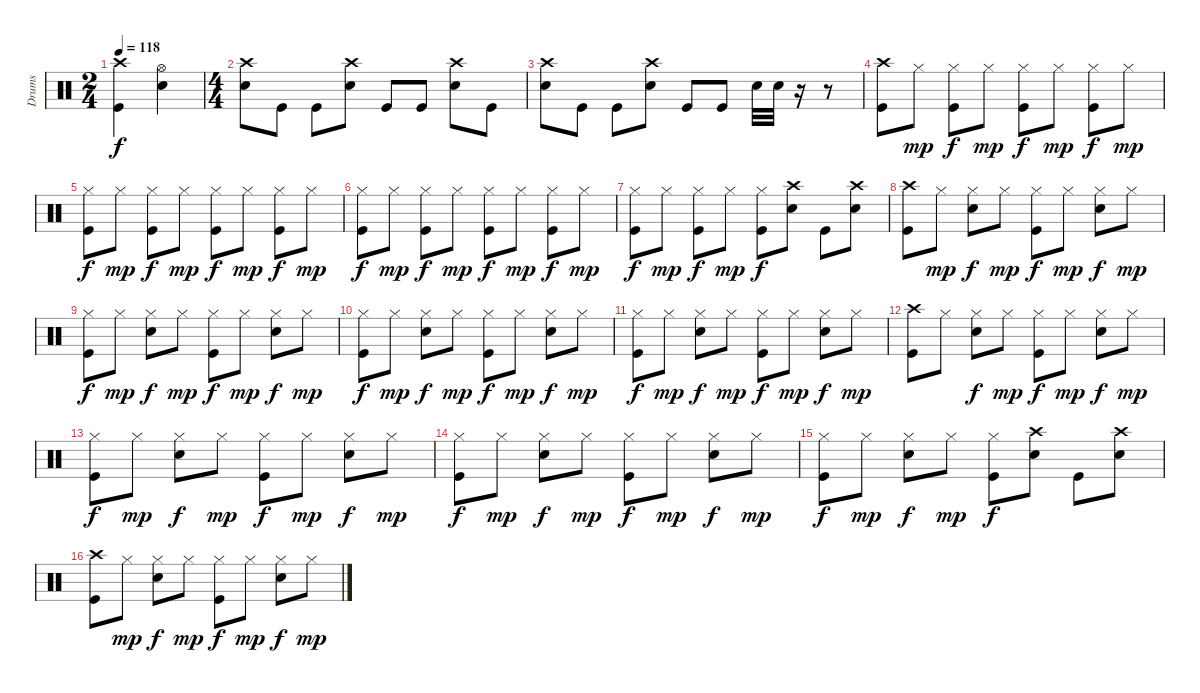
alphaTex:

\track ("Drums" "Drums") {instrument percussion}
\staff {score}
\articulation defaults
\ts (2 4)
\tempo 118
\clef neutral
\ks c
("Crash high (hit)" "Kick (hit)").4{dy f} ("Hi-Hat (open)" "Snare (hit) 2").4 |
\ts (4 4)
("Crash high (hit)" "Snare (hit) 2").8 "Kick (hit)".8 "Kick (hit)".8 ("Crash high (hit)" "Snare (hit) 2").8 "Kick (hit)".8 "Kick (hit)".8 ("Crash high (hit)" "Snare (hit) 2").8 "Kick (hit)".8 |
("Crash high (hit)" "Snare (hit) 2").8 "Kick (hit)".8 "Kick (hit)".8 ("Crash high (hit)" "Snare (hit) 2").8 "Kick (hit)".8 "Kick (hit)".8 "Snare (hit) 2".32 "Snare (hit) 2".32 r.16 r.8 |
("Crash high (hit)" "Kick (hit)").8 "Hi-Hat (closed)".8{dy mp} ("Hi-Hat (closed)" "Kick (hit)").8{dy f} "Hi-Hat (closed)".8{dy mp} ("Hi-Hat (closed)" "Kick (hit)").8{dy f} "Hi-Hat (closed)".8{dy mp} ("Hi-Hat (closed)" "Kick (hit)").8{dy f} "Hi-Hat (closed)".8{dy mp} |
("Hi-Hat (closed)" "Kick (hit)").8{dy f} "Hi-Hat (closed)".8{dy mp} ("Hi-Hat (closed)" "Kick (hit)").8{dy f} "Hi-Hat (closed)".8{dy mp} ("Hi-Hat (closed)" "Kick (hit)").8{dy f} "Hi-Hat (closed)".8{dy mp} ("Hi-Hat (closed)" "Kick (hit)").8{dy f} "Hi-Hat (closed)".8{dy mp} |
("Hi-Hat (closed)" "Kick (hit)").8{dy f} "Hi-Hat (closed)".8{dy mp} ("Hi-Hat (closed)" "Kick (hit)").8{dy f} "Hi-Hat (closed)".8{dy mp} ("Hi-Hat (closed)" "Kick (hit)").8{dy f} "Hi-Hat (closed)".8{dy mp} ("Hi-Hat (closed)" "Kick (hit)").8{dy f} "Hi-Hat (closed)".8{dy mp} |
("Hi-Hat (closed)" "Kick (hit)").8{dy f} "Hi-Hat (closed)".8{dy mp} ("Hi-Hat (closed)" "Kick (hit)").8{dy f} "Hi-Hat (closed)".8{dy mp} ("Hi-Hat (closed)" "Kick (hit)").8{dy f} ("Crash high (hit)" "Snare (hit) 2").8 "Kick (hit)".8 ("Crash high (hit)" "Snare (hit) 2").8 |
("Crash high (hit)" "Kick (hit)").8 "Hi-Hat (closed)".8{dy mp} ("Hi-Hat (closed)" "Snare (hit) 2").8{dy f} "Hi-Hat (closed)".8{dy mp} ("Hi-Hat (closed)" "Kick (hit)").8{dy f} "Hi-Hat (closed)".8{dy mp} ("Hi-Hat (closed)" "Snare (hit) 2").8{dy f} "Hi-Hat (closed)".8{dy mp} |
("Hi-Hat (closed)" "Kick (hit)").8{dy f} "Hi-Hat (closed)".8{dy mp} ("Hi-Hat (closed)" "Snare (hit) 2").8{dy f} "Hi-Hat (closed)".8{dy mp} ("Hi-Hat (closed)" "Kick (hit)").8{dy f} "Hi-Hat (closed)".8{dy mp} ("Hi-Hat (closed)" "Snare (hit) 2").8{dy f} "Hi-Hat (closed)".8{dy mp} |
("Hi-Hat (closed)" "Kick (hit)").8{dy f} "Hi-Hat (closed)".8{dy mp} ("Hi-Hat (closed)" "Snare (hit) 2").8{dy f} "Hi-Hat (closed)".8{dy mp} ("Hi-Hat (closed)" "Kick (hit)").8{dy f} "Hi-Hat (closed)".8{dy mp} ("Hi-Hat (closed)" "Snare (hit) 2").8{dy f} "Hi-Hat (closed)".8{dy mp} |
("Hi-Hat (closed)" "Kick (hit)").8{dy f} "Hi-Hat (closed)".8{dy mp} ("Hi-Hat (closed)" "Snare (hit) 2").8{dy f} "Hi-Hat (closed)".8{dy mp} ("Hi-Hat (closed)" "Kick (hit)").8{dy f} "Hi-Hat (closed)".8{dy mp} ("Hi-Hat (closed)" "Snare (hit) 2").8{dy f} "Hi-Hat (closed)".8{dy mp} |
("Crash high (hit)" "Kick (hit)").8 "Hi-Hat (closed)".8 ("Hi-Hat (closed)" "Snare (hit) 2").8{dy f} "Hi-Hat (closed)".8{dy mp} ("Hi-Hat (closed)" "Kick (hit)").8{dy f} "Hi-Hat (closed)".8{dy mp} ("Hi-Hat (closed)" "Snare (hit) 2").8{dy f} "Hi-Hat (closed)".8{dy mp} |
("Hi-Hat (closed)" "Kick (hit)").8{dy f} "Hi-Hat (closed)".8{dy mp} ("Hi-Hat (closed)" "Snare (hit) 2").8{dy f} "Hi-Hat (closed)".8{dy mp} ("Hi-Hat (closed)" "Kick (hit)").8{dy f} "Hi-Hat (closed)".8{dy mp} ("Hi-Hat (closed)" "Snare (hit) 2").8{dy f} "Hi-Hat (closed)".8{dy mp} |
("Hi-Hat (closed)" "Kick (hit)").8{dy f} "Hi-Hat (closed)".8{dy mp} ("Hi-Hat (closed)" "Snare (hit) 2").8{dy f} "Hi-Hat (closed)".8{dy mp} ("Hi-Hat (closed)" "Kick (hit)").8{dy f} "Hi-Hat (closed)".8{dy mp} ("Hi-Hat (closed)" "Snare (hit) 2").8{dy f} "Hi-Hat (closed)".8{dy mp} |
("Hi-Hat (closed)" "Kick (hit)").8{dy f} "Hi-Hat (closed)".8{dy mp} ("Hi-Hat (closed)" "Snare (hit) 2").8{dy f} "Hi-Hat (closed)".8{dy mp} ("Hi-Hat (closed)" "Kick (hit)").8{dy f} ("Crash high (hit)" "Snare (hit) 2").8 "Kick (hit)".8 ("Crash high (hit)" "Snare (hit) 2").8 |
("Crash high (hit)" "Kick (hit)").8 "Hi-Hat (closed)".8{dy mp} ("Hi-Hat (closed)" "Snare (hit) 2").8{dy f} "Hi-Hat (closed)".8{dy mp} ("Hi-Hat (closed)" "Kick (hit)").8{dy f} "Hi-Hat (closed)".8{dy mp} ("Hi-Hat (closed)" "Snare (hit) 2").8{dy f} "Hi-Hat (closed)".8{dy mp}
